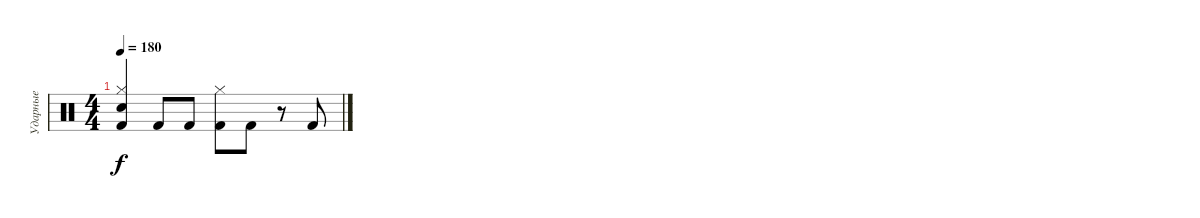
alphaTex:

\track ("Ударные" "Ударные") {instrument percussion}
\staff {score}
\articulation defaults
\ts (4 4)
\tempo 180
\clef neutral
\ks c
("Snare (hit) 2" "Hi-Hat (closed)" "Kick (hit) 2").4{dy f} "Kick (hit) 2".8 "Kick (hit) 2".8 ("Kick (hit) 2" "Hi-Hat (closed)").8 "Kick (hit) 2".8 r.8 "Kick (hit) 2".8
